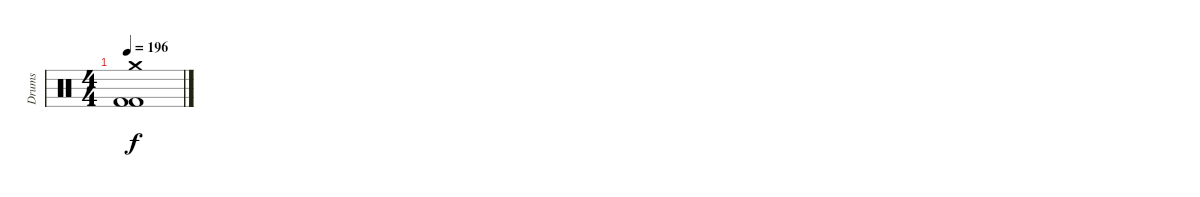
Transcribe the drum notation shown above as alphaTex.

\track ("Drums" "Drums") {instrument percussion}
\staff {score}
\articulation defaults
\ts (4 4)
\tempo 196
\clef neutral
\ks c
("Crash medium (hit)" "Kick (hit) 2" "Kick (hit) 2").1{dy f}
